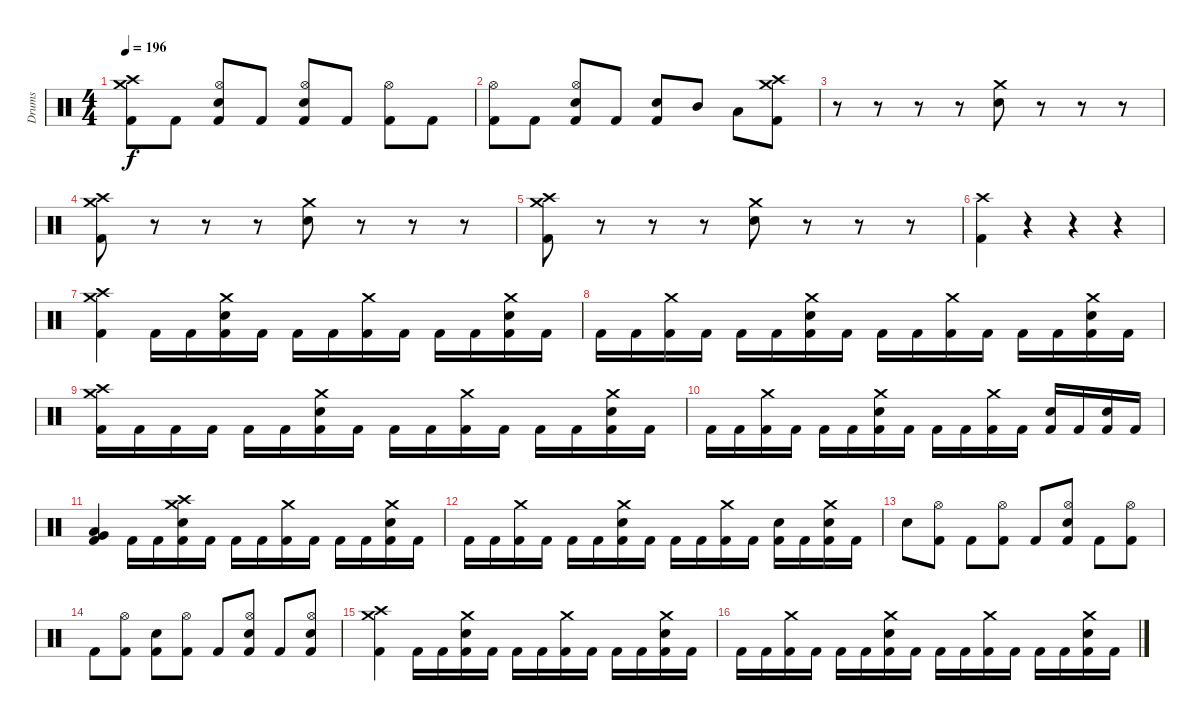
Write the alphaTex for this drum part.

\track ("Drums" "Drums") {instrument percussion}
\staff {score}
\articulation defaults
\ts (4 4)
\tempo 196
\clef neutral
\ks c
("Crash high (hit)" "Crash medium (hit)" "Kick (hit) 2").8{dy f} "Kick (hit) 2".8 ("Hi-Hat (open)" "Snare (hit) 2" "Kick (hit) 2").8 "Kick (hit) 2".8 ("Hi-Hat (open)" "Snare (hit) 2" "Kick (hit) 2").8 "Kick (hit) 2".8 ("Hi-Hat (open)" "Kick (hit) 2").8 "Kick (hit) 2".8 |
("Hi-Hat (open)" "Kick (hit) 2").8 "Kick (hit) 2".8 ("Hi-Hat (open)" "Snare (hit) 2" "Kick (hit) 2").8 "Kick (hit) 2".8 ("Snare (hit) 2" "Kick (hit) 2").8 "Mid Tom (hit)".8 "Low Tom (hit)".8 ("Crash high (hit)" "Crash medium (hit)" "Kick (hit) 2").8 |
r.8 r.8 r.8 r.8 ("Crash medium (hit)" "Snare (hit) 2").8 r.8 r.8 r.8 |
("Crash high (hit)" "Crash medium (hit)" "Kick (hit) 2").8 r.8 r.8 r.8 ("Crash medium (hit)" "Snare (hit) 2").8 r.8 r.8 r.8 |
("Crash high (hit)" "Crash medium (hit)" "Kick (hit) 2").8 r.8 r.8 r.8 ("Crash medium (hit)" "Snare (hit) 2").8 r.8 r.8 r.8 |
("Crash high (hit)" "Kick (hit) 2").4 r.4 r.4 r.4 |
("Crash high (hit)" "Crash medium (hit)" "Kick (hit) 2").4 "Kick (hit) 2".16 "Kick (hit) 2".16 ("Crash medium (hit)" "Snare (hit) 2" "Kick (hit) 2").16 "Kick (hit) 2".16 "Kick (hit) 2".16 "Kick (hit) 2".16 ("Crash medium (hit)" "Kick (hit) 2").16 "Kick (hit) 2".16 "Kick (hit) 2".16 "Kick (hit) 2".16 ("Crash medium (hit)" "Snare (hit) 2" "Kick (hit) 2").16 "Kick (hit) 2".16 |
"Kick (hit) 2".16 "Kick (hit) 2".16 ("Crash medium (hit)" "Kick (hit) 2").16 "Kick (hit) 2".16 "Kick (hit) 2".16 "Kick (hit) 2".16 ("Crash medium (hit)" "Snare (hit) 2" "Kick (hit) 2").16 "Kick (hit) 2".16 "Kick (hit) 2".16 "Kick (hit) 2".16 ("Crash medium (hit)" "Kick (hit) 2").16 "Kick (hit) 2".16 "Kick (hit) 2".16 "Kick (hit) 2".16 ("Crash medium (hit)" "Snare (hit) 2" "Kick (hit) 2").16 "Kick (hit) 2".16 |
("Crash high (hit)" "Crash medium (hit)" "Kick (hit) 2").16 "Kick (hit) 2".16 "Kick (hit) 2".16 "Kick (hit) 2".16 "Kick (hit) 2".16 "Kick (hit) 2".16 ("Crash medium (hit)" "Snare (hit) 2" "Kick (hit) 2").16 "Kick (hit) 2".16 "Kick (hit) 2".16 "Kick (hit) 2".16 ("Crash medium (hit)" "Kick (hit) 2").16 "Kick (hit) 2".16 "Kick (hit) 2".16 "Kick (hit) 2".16 ("Crash medium (hit)" "Snare (hit) 2" "Kick (hit) 2").16 "Kick (hit) 2".16 |
"Kick (hit) 2".16 "Kick (hit) 2".16 ("Crash medium (hit)" "Kick (hit) 2").16 "Kick (hit) 2".16 "Kick (hit) 2".16 "Kick (hit) 2".16 ("Crash medium (hit)" "Snare (hit) 2" "Kick (hit) 2").16 "Kick (hit) 2".16 "Kick (hit) 2".16 "Kick (hit) 2".16 ("Crash medium (hit)" "Kick (hit) 2").16 "Kick (hit) 2".16 ("Snare (hit) 2" "Kick (hit) 2").16 "Kick (hit) 2".16 ("Snare (hit) 2" "Kick (hit) 2").16 "Kick (hit) 2".16 |
("Very Low Tom (hit)" "Low Floor Tom (hit)" "Kick (hit) 2").4 "Kick (hit) 2".16 "Kick (hit) 2".16 ("Crash high (hit)" "Crash medium (hit)" "Snare (hit) 2" "Kick (hit) 2").16 "Kick (hit) 2".16 "Kick (hit) 2".16 "Kick (hit) 2".16 ("Crash medium (hit)" "Kick (hit) 2").16 "Kick (hit) 2".16 "Kick (hit) 2".16 "Kick (hit) 2".16 ("Crash medium (hit)" "Snare (hit) 2" "Kick (hit) 2").16 "Kick (hit) 2".16 |
"Kick (hit) 2".16 "Kick (hit) 2".16 ("Crash medium (hit)" "Kick (hit) 2").16 "Kick (hit) 2".16 "Kick (hit) 2".16 "Kick (hit) 2".16 ("Crash medium (hit)" "Snare (hit) 2" "Kick (hit) 2").16 "Kick (hit) 2".16 "Kick (hit) 2".16 "Kick (hit) 2".16 ("Crash medium (hit)" "Kick (hit) 2").16 "Kick (hit) 2".16 ("Snare (hit) 2" "Kick (hit) 2").16 "Kick (hit) 2".16 ("Crash medium (hit)" "Snare (hit) 2" "Kick (hit) 2").16 "Kick (hit) 2".16 |
"Snare (hit) 2".8 ("Hi-Hat (open)" "Kick (hit) 2").8 "Kick (hit) 2".8 ("Hi-Hat (open)" "Kick (hit) 2").8 "Kick (hit) 2".8 ("Hi-Hat (open)" "Snare (hit) 2" "Kick (hit) 2").8 "Kick (hit) 2".8 ("Hi-Hat (open)" "Kick (hit) 2").8 |
"Kick (hit) 2".8 ("Hi-Hat (open)" "Kick (hit) 2").8 ("Snare (hit) 2" "Kick (hit) 2").8 ("Hi-Hat (open)" "Kick (hit) 2").8 "Kick (hit) 2".8 ("Hi-Hat (open)" "Snare (hit) 2" "Kick (hit) 2").8 "Kick (hit) 2".8 ("Hi-Hat (open)" "Snare (hit) 2" "Kick (hit) 2").8 |
("Crash high (hit)" "Crash medium (hit)" "Kick (hit) 2").4 "Kick (hit) 2".16 "Kick (hit) 2".16 ("Crash medium (hit)" "Snare (hit) 2" "Kick (hit) 2").16 "Kick (hit) 2".16 "Kick (hit) 2".16 "Kick (hit) 2".16 ("Crash medium (hit)" "Kick (hit) 2").16 "Kick (hit) 2".16 "Kick (hit) 2".16 "Kick (hit) 2".16 ("Crash medium (hit)" "Snare (hit) 2" "Kick (hit) 2").16 "Kick (hit) 2".16 |
"Kick (hit) 2".16 "Kick (hit) 2".16 ("Crash medium (hit)" "Kick (hit) 2").16 "Kick (hit) 2".16 "Kick (hit) 2".16 "Kick (hit) 2".16 ("Crash medium (hit)" "Snare (hit) 2" "Kick (hit) 2").16 "Kick (hit) 2".16 "Kick (hit) 2".16 "Kick (hit) 2".16 ("Crash medium (hit)" "Kick (hit) 2").16 "Kick (hit) 2".16 "Kick (hit) 2".16 "Kick (hit) 2".16 ("Crash medium (hit)" "Snare (hit) 2" "Kick (hit) 2").16 "Kick (hit) 2".16
